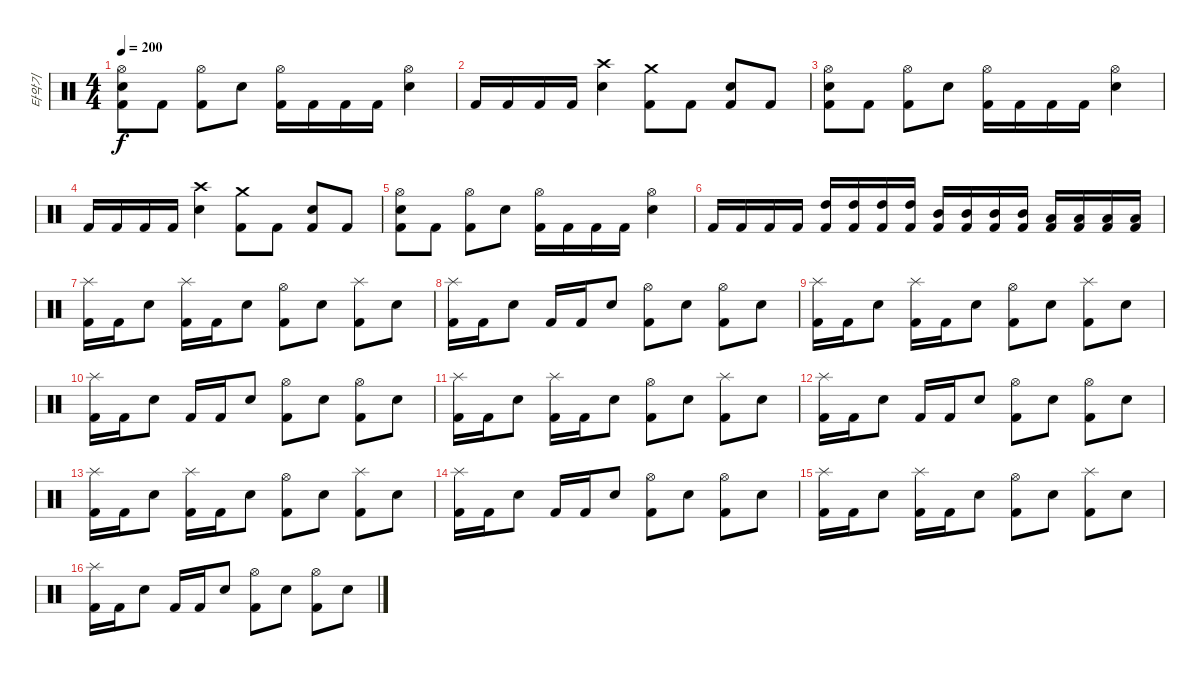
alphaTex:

\track ("타악기" "타악기") {instrument percussion}
\staff {score}
\articulation defaults
\ts (4 4)
\tempo 200
\clef neutral
\ks c
("Hi-Hat (open)" "Snare (hit) 2" "Kick (hit) 2").8{dy f} "Kick (hit) 2".8 ("Hi-Hat (open)" "Kick (hit) 2").8 "Snare (hit) 2".8 ("Hi-Hat (open)" "Kick (hit) 2").16 "Kick (hit) 2".16 "Kick (hit) 2".16 "Kick (hit) 2".16 ("Hi-Hat (open)" "Snare (hit) 2").4 |
"Kick (hit) 2".16 "Kick (hit) 2".16 "Kick (hit) 2".16 "Kick (hit) 2".16 ("Crash high (hit)" "Snare (hit) 2").4 ("Crash medium (hit)" "Kick (hit) 2").8 "Kick (hit) 2".8 ("Snare (hit) 2" "Kick (hit) 2").8 "Kick (hit) 2".8 |
("Hi-Hat (open)" "Snare (hit) 2" "Kick (hit) 2").8 "Kick (hit) 2".8 ("Hi-Hat (open)" "Kick (hit) 2").8 "Snare (hit) 2".8 ("Hi-Hat (open)" "Kick (hit) 2").16 "Kick (hit) 2".16 "Kick (hit) 2".16 "Kick (hit) 2".16 ("Hi-Hat (open)" "Snare (hit) 2").4 |
"Kick (hit) 2".16 "Kick (hit) 2".16 "Kick (hit) 2".16 "Kick (hit) 2".16 ("Crash high (hit)" "Snare (hit) 2").4 ("Crash medium (hit)" "Kick (hit) 2").8 "Kick (hit) 2".8 ("Snare (hit) 2" "Kick (hit) 2").8 "Kick (hit) 2".8 |
("Hi-Hat (open)" "Snare (hit) 2" "Kick (hit) 2").8 "Kick (hit) 2".8 ("Hi-Hat (open)" "Kick (hit) 2").8 "Snare (hit) 2".8 ("Hi-Hat (open)" "Kick (hit) 2").16 "Kick (hit) 2".16 "Kick (hit) 2".16 "Kick (hit) 2".16 ("Hi-Hat (open)" "Snare (hit) 2").4 |
"Kick (hit) 2".16 "Kick (hit) 2".16 "Kick (hit) 2".16 "Kick (hit) 2".16 ("High Tom (hit)" "Kick (hit) 2").16 ("High Tom (hit)" "Kick (hit) 2").16 ("High Tom (hit)" "Kick (hit) 2").16 ("High Tom (hit)" "Kick (hit) 2").16 ("Mid Tom (hit)" "Kick (hit) 2").16 ("Mid Tom (hit)" "Kick (hit) 2").16 ("Mid Tom (hit)" "Kick (hit) 2").16 ("Mid Tom (hit)" "Kick (hit) 2").16 ("Low Tom (hit)" "Kick (hit) 2").16 ("Low Tom (hit)" "Kick (hit) 2").16 ("Low Tom (hit)" "Kick (hit) 2").16 ("Low Tom (hit)" "Kick (hit) 2").16 |
("Splash (hit)" "Kick (hit) 2").16 "Kick (hit) 2".16 "Snare (hit) 2".8 ("Splash (hit)" "Kick (hit) 2").16 "Kick (hit) 2".16 "Snare (hit) 2".8 ("Hi-Hat (open)" "Kick (hit) 2").8 "Snare (hit) 2".8 ("Splash (hit)" "Kick (hit) 2").8 "Snare (hit) 2".8 |
("Splash (hit)" "Kick (hit) 2").16 "Kick (hit) 2".16 "Snare (hit) 2".8 "Kick (hit) 2".16 "Kick (hit) 2".16 "Snare (hit) 2".8 ("Hi-Hat (open)" "Kick (hit) 2").8 "Snare (hit) 2".8 ("Hi-Hat (open)" "Kick (hit) 2").8 "Snare (hit) 2".8 |
("Splash (hit)" "Kick (hit) 2").16 "Kick (hit) 2".16 "Snare (hit) 2".8 ("Splash (hit)" "Kick (hit) 2").16 "Kick (hit) 2".16 "Snare (hit) 2".8 ("Hi-Hat (open)" "Kick (hit) 2").8 "Snare (hit) 2".8 ("Splash (hit)" "Kick (hit) 2").8 "Snare (hit) 2".8 |
("Splash (hit)" "Kick (hit) 2").16 "Kick (hit) 2".16 "Snare (hit) 2".8 "Kick (hit) 2".16 "Kick (hit) 2".16 "Snare (hit) 2".8 ("Hi-Hat (open)" "Kick (hit) 2").8 "Snare (hit) 2".8 ("Hi-Hat (open)" "Kick (hit) 2").8 "Snare (hit) 2".8 |
("Splash (hit)" "Kick (hit) 2").16 "Kick (hit) 2".16 "Snare (hit) 2".8 ("Splash (hit)" "Kick (hit) 2").16 "Kick (hit) 2".16 "Snare (hit) 2".8 ("Hi-Hat (open)" "Kick (hit) 2").8 "Snare (hit) 2".8 ("Splash (hit)" "Kick (hit) 2").8 "Snare (hit) 2".8 |
("Splash (hit)" "Kick (hit) 2").16 "Kick (hit) 2".16 "Snare (hit) 2".8 "Kick (hit) 2".16 "Kick (hit) 2".16 "Snare (hit) 2".8 ("Hi-Hat (open)" "Kick (hit) 2").8 "Snare (hit) 2".8 ("Hi-Hat (open)" "Kick (hit) 2").8 "Snare (hit) 2".8 |
("Splash (hit)" "Kick (hit) 2").16 "Kick (hit) 2".16 "Snare (hit) 2".8 ("Splash (hit)" "Kick (hit) 2").16 "Kick (hit) 2".16 "Snare (hit) 2".8 ("Hi-Hat (open)" "Kick (hit) 2").8 "Snare (hit) 2".8 ("Splash (hit)" "Kick (hit) 2").8 "Snare (hit) 2".8 |
("Splash (hit)" "Kick (hit) 2").16 "Kick (hit) 2".16 "Snare (hit) 2".8 "Kick (hit) 2".16 "Kick (hit) 2".16 "Snare (hit) 2".8 ("Hi-Hat (open)" "Kick (hit) 2").8 "Snare (hit) 2".8 ("Hi-Hat (open)" "Kick (hit) 2").8 "Snare (hit) 2".8 |
("Splash (hit)" "Kick (hit) 2").16 "Kick (hit) 2".16 "Snare (hit) 2".8 ("Splash (hit)" "Kick (hit) 2").16 "Kick (hit) 2".16 "Snare (hit) 2".8 ("Hi-Hat (open)" "Kick (hit) 2").8 "Snare (hit) 2".8 ("Splash (hit)" "Kick (hit) 2").8 "Snare (hit) 2".8 |
("Splash (hit)" "Kick (hit) 2").16 "Kick (hit) 2".16 "Snare (hit) 2".8 "Kick (hit) 2".16 "Kick (hit) 2".16 "Snare (hit) 2".8 ("Hi-Hat (open)" "Kick (hit) 2").8 "Snare (hit) 2".8 ("Hi-Hat (open)" "Kick (hit) 2").8 "Snare (hit) 2".8
